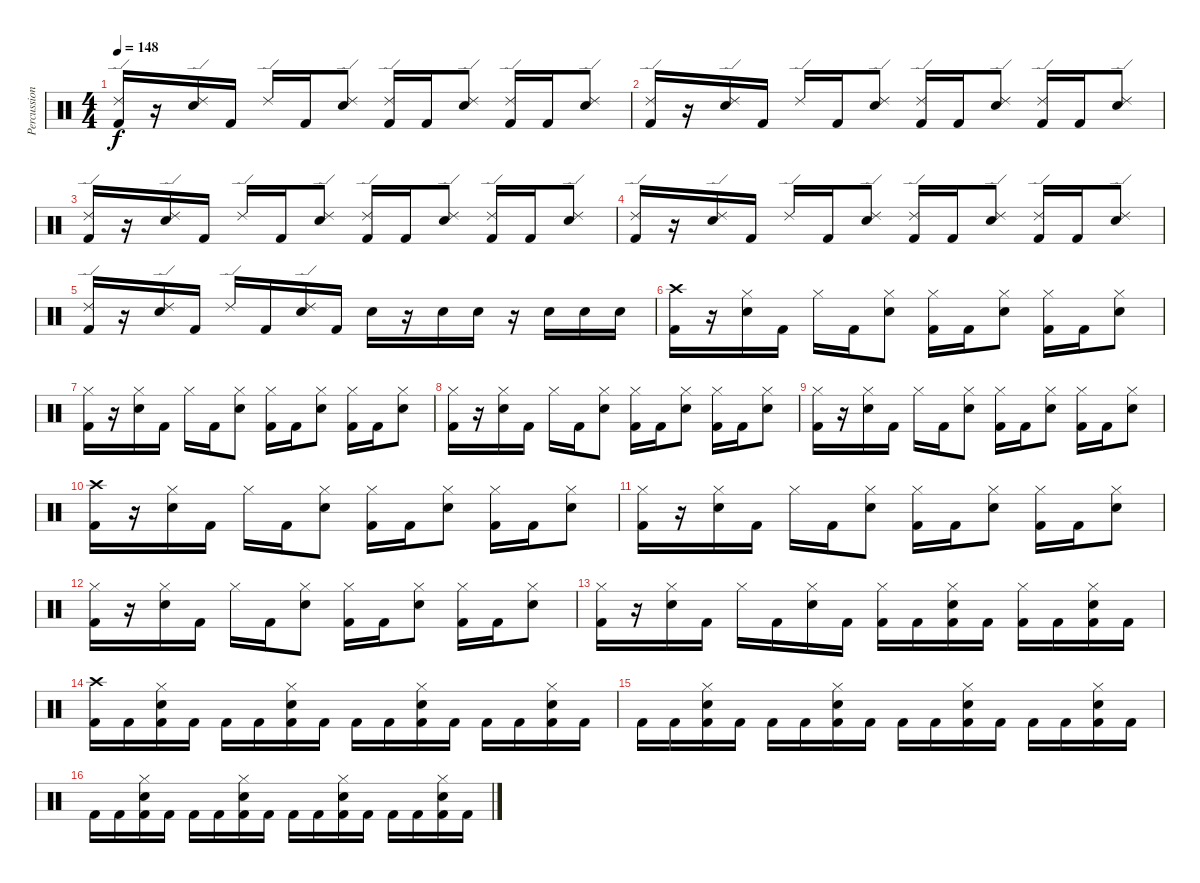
\track ("Percussion" "Percussion") {instrument percussion}
\staff {score}
\articulation defaults
\ts (4 4)
\tempo 148
\clef neutral
\ks c
("Ride (edge) 2" "Kick (hit) 2").16{dy f} r.16 ("Ride (edge) 2" "Snare (hit) 2").16 "Kick (hit) 2".16 "Ride (edge) 2".16 "Kick (hit) 2".16 ("Ride (edge) 2" "Snare (hit) 2").8 ("Ride (edge) 2" "Kick (hit) 2").16 "Kick (hit) 2".16 ("Ride (edge) 2" "Snare (hit) 2").8 ("Ride (edge) 2" "Kick (hit) 2").16 "Kick (hit) 2".16 ("Ride (edge) 2" "Snare (hit) 2").8 |
("Ride (edge) 2" "Kick (hit) 2").16 r.16 ("Ride (edge) 2" "Snare (hit) 2").16 "Kick (hit) 2".16 "Ride (edge) 2".16 "Kick (hit) 2".16 ("Ride (edge) 2" "Snare (hit) 2").8 ("Ride (edge) 2" "Kick (hit) 2").16 "Kick (hit) 2".16 ("Ride (edge) 2" "Snare (hit) 2").8 ("Ride (edge) 2" "Kick (hit) 2").16 "Kick (hit) 2".16 ("Ride (edge) 2" "Snare (hit) 2").8 |
("Ride (edge) 2" "Kick (hit) 2").16 r.16 ("Ride (edge) 2" "Snare (hit) 2").16 "Kick (hit) 2".16 "Ride (edge) 2".16 "Kick (hit) 2".16 ("Ride (edge) 2" "Snare (hit) 2").8 ("Ride (edge) 2" "Kick (hit) 2").16 "Kick (hit) 2".16 ("Ride (edge) 2" "Snare (hit) 2").8 ("Ride (edge) 2" "Kick (hit) 2").16 "Kick (hit) 2".16 ("Ride (edge) 2" "Snare (hit) 2").8 |
("Ride (edge) 2" "Kick (hit) 2").16 r.16 ("Ride (edge) 2" "Snare (hit) 2").16 "Kick (hit) 2".16 "Ride (edge) 2".16 "Kick (hit) 2".16 ("Ride (edge) 2" "Snare (hit) 2").8 ("Ride (edge) 2" "Kick (hit) 2").16 "Kick (hit) 2".16 ("Ride (edge) 2" "Snare (hit) 2").8 ("Ride (edge) 2" "Kick (hit) 2").16 "Kick (hit) 2".16 ("Ride (edge) 2" "Snare (hit) 2").8 |
("Ride (edge) 2" "Kick (hit) 2").16 r.16 ("Ride (edge) 2" "Snare (hit) 2").16 "Kick (hit) 2".16 "Ride (edge) 2".16 "Kick (hit) 2".16 ("Ride (edge) 2" "Snare (hit) 2").16 "Kick (hit) 2".16 "Snare (hit) 2".16 r.16 "Snare (hit) 2".16 "Snare (hit) 2".16 r.16 "Snare (hit) 2".16 "Snare (hit) 2".16 "Snare (hit) 2".16 |
("Crash high (hit)" "Kick (hit) 2").16 r.16 ("Hi-Hat (closed)" "Snare (hit) 2").16 "Kick (hit) 2".16 "Hi-Hat (closed)".16 "Kick (hit) 2".16 ("Hi-Hat (closed)" "Snare (hit) 2").8 ("Hi-Hat (closed)" "Kick (hit) 2").16 "Kick (hit) 2".16 ("Hi-Hat (closed)" "Snare (hit) 2").8 ("Hi-Hat (closed)" "Kick (hit) 2").16 "Kick (hit) 2".16 ("Hi-Hat (closed)" "Snare (hit) 2").8 |
("Hi-Hat (closed)" "Kick (hit) 2").16 r.16 ("Hi-Hat (closed)" "Snare (hit) 2").16 "Kick (hit) 2".16 "Hi-Hat (closed)".16 "Kick (hit) 2".16 ("Hi-Hat (closed)" "Snare (hit) 2").8 ("Hi-Hat (closed)" "Kick (hit) 2").16 "Kick (hit) 2".16 ("Hi-Hat (closed)" "Snare (hit) 2").8 ("Hi-Hat (closed)" "Kick (hit) 2").16 "Kick (hit) 2".16 ("Hi-Hat (closed)" "Snare (hit) 2").8 |
("Hi-Hat (closed)" "Kick (hit) 2").16 r.16 ("Hi-Hat (closed)" "Snare (hit) 2").16 "Kick (hit) 2".16 "Hi-Hat (closed)".16 "Kick (hit) 2".16 ("Hi-Hat (closed)" "Snare (hit) 2").8 ("Hi-Hat (closed)" "Kick (hit) 2").16 "Kick (hit) 2".16 ("Hi-Hat (closed)" "Snare (hit) 2").8 ("Hi-Hat (closed)" "Kick (hit) 2").16 "Kick (hit) 2".16 ("Hi-Hat (closed)" "Snare (hit) 2").8 |
("Hi-Hat (closed)" "Kick (hit) 2").16 r.16 ("Hi-Hat (closed)" "Snare (hit) 2").16 "Kick (hit) 2".16 "Hi-Hat (closed)".16 "Kick (hit) 2".16 ("Hi-Hat (closed)" "Snare (hit) 2").8 ("Hi-Hat (closed)" "Kick (hit) 2").16 "Kick (hit) 2".16 ("Hi-Hat (closed)" "Snare (hit) 2").8 ("Hi-Hat (closed)" "Kick (hit) 2").16 "Kick (hit) 2".16 ("Hi-Hat (closed)" "Snare (hit) 2").8 |
("Crash high (hit)" "Kick (hit) 2").16 r.16 ("Hi-Hat (closed)" "Snare (hit) 2").16 "Kick (hit) 2".16 "Hi-Hat (closed)".16 "Kick (hit) 2".16 ("Hi-Hat (closed)" "Snare (hit) 2").8 ("Hi-Hat (closed)" "Kick (hit) 2").16 "Kick (hit) 2".16 ("Hi-Hat (closed)" "Snare (hit) 2").8 ("Hi-Hat (closed)" "Kick (hit) 2").16 "Kick (hit) 2".16 ("Hi-Hat (closed)" "Snare (hit) 2").8 |
("Hi-Hat (closed)" "Kick (hit) 2").16 r.16 ("Hi-Hat (closed)" "Snare (hit) 2").16 "Kick (hit) 2".16 "Hi-Hat (closed)".16 "Kick (hit) 2".16 ("Hi-Hat (closed)" "Snare (hit) 2").8 ("Hi-Hat (closed)" "Kick (hit) 2").16 "Kick (hit) 2".16 ("Hi-Hat (closed)" "Snare (hit) 2").8 ("Hi-Hat (closed)" "Kick (hit) 2").16 "Kick (hit) 2".16 ("Hi-Hat (closed)" "Snare (hit) 2").8 |
("Hi-Hat (closed)" "Kick (hit) 2").16 r.16 ("Hi-Hat (closed)" "Snare (hit) 2").16 "Kick (hit) 2".16 "Hi-Hat (closed)".16 "Kick (hit) 2".16 ("Hi-Hat (closed)" "Snare (hit) 2").8 ("Hi-Hat (closed)" "Kick (hit) 2").16 "Kick (hit) 2".16 ("Hi-Hat (closed)" "Snare (hit) 2").8 ("Hi-Hat (closed)" "Kick (hit) 2").16 "Kick (hit) 2".16 ("Hi-Hat (closed)" "Snare (hit) 2").8 |
("Hi-Hat (closed)" "Kick (hit) 2").16 r.16 ("Hi-Hat (closed)" "Snare (hit) 2").16 "Kick (hit) 2".16 "Hi-Hat (closed)".16 "Kick (hit) 2".16 ("Hi-Hat (closed)" "Snare (hit) 2").16 "Kick (hit) 2".16 ("Hi-Hat (closed)" "Kick (hit) 2").16 "Kick (hit) 2".16 ("Hi-Hat (closed)" "Snare (hit) 2" "Kick (hit) 2").16 "Kick (hit) 2".16 ("Hi-Hat (closed)" "Kick (hit) 2").16 "Kick (hit) 2".16 ("Hi-Hat (closed)" "Snare (hit) 2" "Kick (hit) 2").16 "Kick (hit) 2".16 |
("Crash high (hit)" "Kick (hit) 2").16 "Kick (hit) 2".16 ("Hi-Hat (closed)" "Snare (hit) 2" "Kick (hit) 2").16 "Kick (hit) 2".16 "Kick (hit) 2".16 "Kick (hit) 2".16 ("Hi-Hat (closed)" "Snare (hit) 2" "Kick (hit) 2").16 "Kick (hit) 2".16 "Kick (hit) 2".16 "Kick (hit) 2".16 ("Hi-Hat (closed)" "Snare (hit) 2" "Kick (hit) 2").16 "Kick (hit) 2".16 "Kick (hit) 2".16 "Kick (hit) 2".16 ("Hi-Hat (closed)" "Snare (hit) 2" "Kick (hit) 2").16 "Kick (hit) 2".16 |
"Kick (hit) 2".16 "Kick (hit) 2".16 ("Hi-Hat (closed)" "Snare (hit) 2" "Kick (hit) 2").16 "Kick (hit) 2".16 "Kick (hit) 2".16 "Kick (hit) 2".16 ("Hi-Hat (closed)" "Snare (hit) 2" "Kick (hit) 2").16 "Kick (hit) 2".16 "Kick (hit) 2".16 "Kick (hit) 2".16 ("Hi-Hat (closed)" "Snare (hit) 2" "Kick (hit) 2").16 "Kick (hit) 2".16 "Kick (hit) 2".16 "Kick (hit) 2".16 ("Hi-Hat (closed)" "Snare (hit) 2" "Kick (hit) 2").16 "Kick (hit) 2".16 |
"Kick (hit) 2".16 "Kick (hit) 2".16 ("Hi-Hat (closed)" "Snare (hit) 2" "Kick (hit) 2").16 "Kick (hit) 2".16 "Kick (hit) 2".16 "Kick (hit) 2".16 ("Hi-Hat (closed)" "Snare (hit) 2" "Kick (hit) 2").16 "Kick (hit) 2".16 "Kick (hit) 2".16 "Kick (hit) 2".16 ("Hi-Hat (closed)" "Snare (hit) 2" "Kick (hit) 2").16 "Kick (hit) 2".16 "Kick (hit) 2".16 "Kick (hit) 2".16 ("Hi-Hat (closed)" "Snare (hit) 2" "Kick (hit) 2").16 "Kick (hit) 2".16
